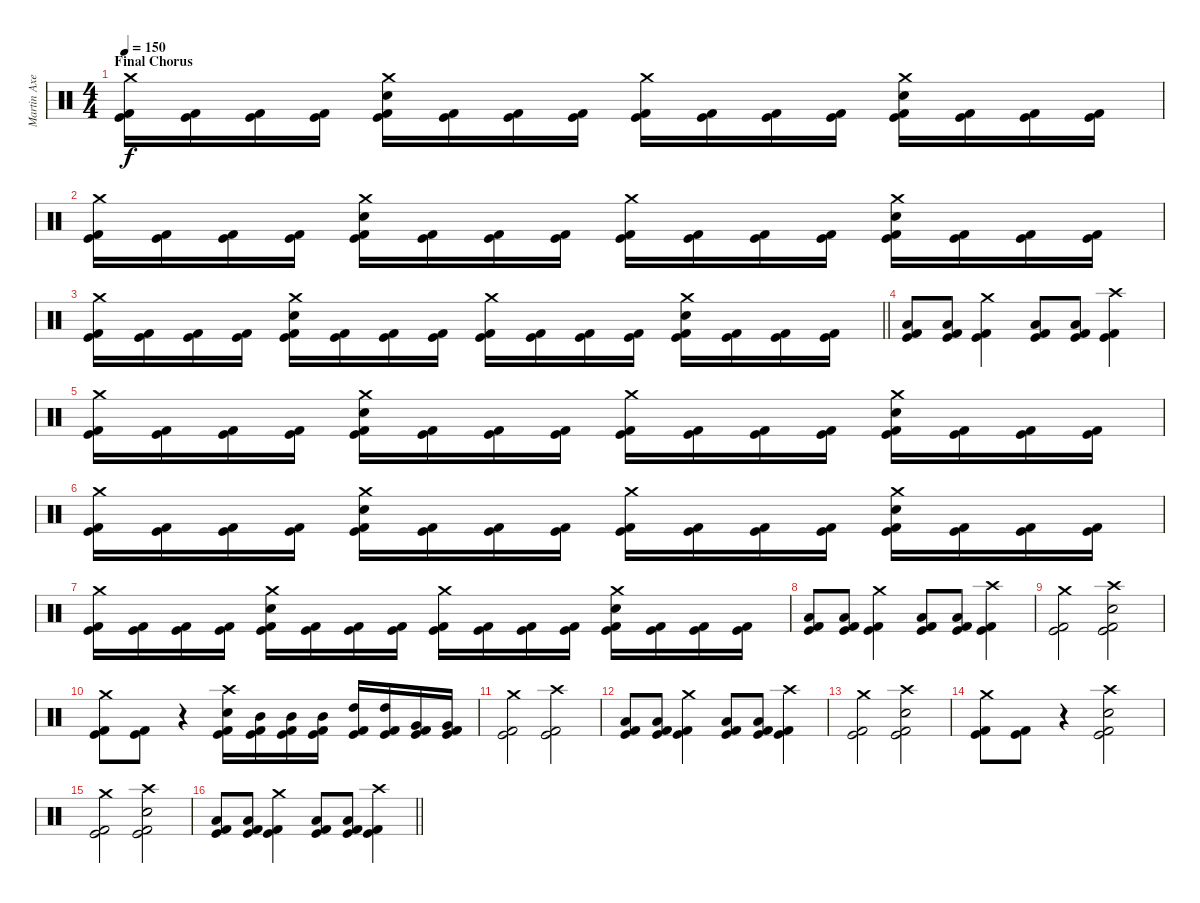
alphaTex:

\track ("Martin Axenrot" "Martin Axe") {instrument percussion}
\staff {score}
\articulation defaults
\ts (4 4)
\section ("" "Final Chorus")
\tempo 150
\clef neutral
\ks c
("Crash medium (hit)" "Kick (hit) 2" "Kick (hit)").16{dy f} ("Kick (hit) 2" "Kick (hit)").16 ("Kick (hit) 2" "Kick (hit)").16 ("Kick (hit) 2" "Kick (hit)").16 ("Crash medium (hit)" "Electric Snare (hit)" "Kick (hit) 2" "Kick (hit)").16 ("Kick (hit) 2" "Kick (hit)").16 ("Kick (hit) 2" "Kick (hit)").16 ("Kick (hit) 2" "Kick (hit)").16 ("Crash medium (hit)" "Kick (hit) 2" "Kick (hit)").16 ("Kick (hit) 2" "Kick (hit)").16 ("Kick (hit) 2" "Kick (hit)").16 ("Kick (hit) 2" "Kick (hit)").16 ("Crash medium (hit)" "Electric Snare (hit)" "Kick (hit) 2" "Kick (hit)").16 ("Kick (hit) 2" "Kick (hit)").16 ("Kick (hit) 2" "Kick (hit)").16 ("Kick (hit) 2" "Kick (hit)").16 |
("Crash medium (hit)" "Kick (hit) 2" "Kick (hit)").16 ("Kick (hit) 2" "Kick (hit)").16 ("Kick (hit) 2" "Kick (hit)").16 ("Kick (hit) 2" "Kick (hit)").16 ("Crash medium (hit)" "Electric Snare (hit)" "Kick (hit) 2" "Kick (hit)").16 ("Kick (hit) 2" "Kick (hit)").16 ("Kick (hit) 2" "Kick (hit)").16 ("Kick (hit) 2" "Kick (hit)").16 ("Crash medium (hit)" "Kick (hit) 2" "Kick (hit)").16 ("Kick (hit) 2" "Kick (hit)").16 ("Kick (hit) 2" "Kick (hit)").16 ("Kick (hit) 2" "Kick (hit)").16 ("Crash medium (hit)" "Electric Snare (hit)" "Kick (hit) 2" "Kick (hit)").16 ("Kick (hit) 2" "Kick (hit)").16 ("Kick (hit) 2" "Kick (hit)").16 ("Kick (hit) 2" "Kick (hit)").16 |
\barLineRight lightlight
("Crash medium (hit)" "Kick (hit) 2" "Kick (hit)").16 ("Kick (hit) 2" "Kick (hit)").16 ("Kick (hit) 2" "Kick (hit)").16 ("Kick (hit) 2" "Kick (hit)").16 ("Crash medium (hit)" "Electric Snare (hit)" "Kick (hit) 2" "Kick (hit)").16 ("Kick (hit) 2" "Kick (hit)").16 ("Kick (hit) 2" "Kick (hit)").16 ("Kick (hit) 2" "Kick (hit)").16 ("Crash medium (hit)" "Kick (hit) 2" "Kick (hit)").16 ("Kick (hit) 2" "Kick (hit)").16 ("Kick (hit) 2" "Kick (hit)").16 ("Kick (hit) 2" "Kick (hit)").16 ("Crash medium (hit)" "Electric Snare (hit)" "Kick (hit) 2" "Kick (hit)").16 ("Kick (hit) 2" "Kick (hit)").16 ("Kick (hit) 2" "Kick (hit)").16 ("Kick (hit) 2" "Kick (hit)").16 |
("Low Floor Tom (hit)" "Kick (hit) 2" "Kick (hit)").8 ("Low Floor Tom (hit)" "Kick (hit) 2" "Kick (hit)").8 ("Crash medium (hit)" "Kick (hit) 2" "Kick (hit)").4 ("Low Floor Tom (hit)" "Kick (hit) 2" "Kick (hit)").8 ("Low Floor Tom (hit)" "Kick (hit) 2" "Kick (hit)").8 ("Crash high (hit)" "Kick (hit) 2" "Kick (hit)").4 |
("Crash medium (hit)" "Kick (hit) 2" "Kick (hit)").16 ("Kick (hit) 2" "Kick (hit)").16 ("Kick (hit) 2" "Kick (hit)").16 ("Kick (hit) 2" "Kick (hit)").16 ("Crash medium (hit)" "Electric Snare (hit)" "Kick (hit) 2" "Kick (hit)").16 ("Kick (hit) 2" "Kick (hit)").16 ("Kick (hit) 2" "Kick (hit)").16 ("Kick (hit) 2" "Kick (hit)").16 ("Crash medium (hit)" "Kick (hit) 2" "Kick (hit)").16 ("Kick (hit) 2" "Kick (hit)").16 ("Kick (hit) 2" "Kick (hit)").16 ("Kick (hit) 2" "Kick (hit)").16 ("Crash medium (hit)" "Electric Snare (hit)" "Kick (hit) 2" "Kick (hit)").16 ("Kick (hit) 2" "Kick (hit)").16 ("Kick (hit) 2" "Kick (hit)").16 ("Kick (hit) 2" "Kick (hit)").16 |
("Crash medium (hit)" "Kick (hit) 2" "Kick (hit)").16 ("Kick (hit) 2" "Kick (hit)").16 ("Kick (hit) 2" "Kick (hit)").16 ("Kick (hit) 2" "Kick (hit)").16 ("Crash medium (hit)" "Electric Snare (hit)" "Kick (hit) 2" "Kick (hit)").16 ("Kick (hit) 2" "Kick (hit)").16 ("Kick (hit) 2" "Kick (hit)").16 ("Kick (hit) 2" "Kick (hit)").16 ("Crash medium (hit)" "Kick (hit) 2" "Kick (hit)").16 ("Kick (hit) 2" "Kick (hit)").16 ("Kick (hit) 2" "Kick (hit)").16 ("Kick (hit) 2" "Kick (hit)").16 ("Crash medium (hit)" "Electric Snare (hit)" "Kick (hit) 2" "Kick (hit)").16 ("Kick (hit) 2" "Kick (hit)").16 ("Kick (hit) 2" "Kick (hit)").16 ("Kick (hit) 2" "Kick (hit)").16 |
("Crash medium (hit)" "Kick (hit) 2" "Kick (hit)").16 ("Kick (hit) 2" "Kick (hit)").16 ("Kick (hit) 2" "Kick (hit)").16 ("Kick (hit) 2" "Kick (hit)").16 ("Crash medium (hit)" "Electric Snare (hit)" "Kick (hit) 2" "Kick (hit)").16 ("Kick (hit) 2" "Kick (hit)").16 ("Kick (hit) 2" "Kick (hit)").16 ("Kick (hit) 2" "Kick (hit)").16 ("Crash medium (hit)" "Kick (hit) 2" "Kick (hit)").16 ("Kick (hit) 2" "Kick (hit)").16 ("Kick (hit) 2" "Kick (hit)").16 ("Kick (hit) 2" "Kick (hit)").16 ("Crash medium (hit)" "Electric Snare (hit)" "Kick (hit) 2" "Kick (hit)").16 ("Kick (hit) 2" "Kick (hit)").16 ("Kick (hit) 2" "Kick (hit)").16 ("Kick (hit) 2" "Kick (hit)").16 |
("Low Floor Tom (hit)" "Kick (hit) 2" "Kick (hit)").8 ("Low Floor Tom (hit)" "Kick (hit) 2" "Kick (hit)").8 ("Crash medium (hit)" "Kick (hit) 2" "Kick (hit)").4 ("Low Floor Tom (hit)" "Kick (hit) 2" "Kick (hit)").8 ("Low Floor Tom (hit)" "Kick (hit) 2" "Kick (hit)").8 ("Crash high (hit)" "Kick (hit) 2" "Kick (hit)").4 |
("Crash medium (hit)" "Kick (hit) 2" "Kick (hit)").2 ("Crash high (hit)" "Electric Snare (hit)" "Kick (hit) 2" "Kick (hit)").2 |
("Crash medium (hit)" "Kick (hit) 2" "Kick (hit)").8 ("Kick (hit) 2" "Kick (hit)").8 r.4 ("Crash high (hit)" "Electric Snare (hit)" "Kick (hit) 2" "Kick (hit)").16 ("Mid Tom (hit)" "Kick (hit) 2" "Kick (hit)").16 ("Mid Tom (hit)" "Kick (hit) 2" "Kick (hit)").16 ("Mid Tom (hit)" "Kick (hit) 2" "Kick (hit)").16 ("High Tom (hit)" "Kick (hit) 2" "Kick (hit)").16 ("High Tom (hit)" "Kick (hit) 2" "Kick (hit)").16 ("Very Low Tom (hit)" "Kick (hit) 2" "Kick (hit)").16 ("Very Low Tom (hit)" "Kick (hit) 2" "Kick (hit)").16 |
("Crash medium (hit)" "Kick (hit) 2" "Kick (hit)").2 ("Crash high (hit)" "Kick (hit) 2" "Kick (hit)").2 |
("Low Floor Tom (hit)" "Kick (hit) 2" "Kick (hit)").8 ("Low Floor Tom (hit)" "Kick (hit) 2" "Kick (hit)").8 ("Crash medium (hit)" "Kick (hit) 2" "Kick (hit)").4 ("Low Floor Tom (hit)" "Kick (hit) 2" "Kick (hit)").8 ("Low Floor Tom (hit)" "Kick (hit) 2" "Kick (hit)").8 ("Crash high (hit)" "Kick (hit) 2" "Kick (hit)").4 |
("Crash medium (hit)" "Kick (hit) 2" "Kick (hit)").2 ("Crash high (hit)" "Electric Snare (hit)" "Kick (hit) 2" "Kick (hit)").2 |
("Crash medium (hit)" "Kick (hit) 2" "Kick (hit)").8 ("Kick (hit) 2" "Kick (hit)").8 r.4 ("Crash high (hit)" "Electric Snare (hit)" "Kick (hit) 2" "Kick (hit)").2 |
("Crash medium (hit)" "Kick (hit) 2" "Kick (hit)").2 ("Crash high (hit)" "Electric Snare (hit)" "Kick (hit) 2" "Kick (hit)").2 |
\barLineRight lightlight
("Low Floor Tom (hit)" "Kick (hit) 2" "Kick (hit)").8 ("Low Floor Tom (hit)" "Kick (hit) 2" "Kick (hit)").8 ("Crash medium (hit)" "Kick (hit) 2" "Kick (hit)").4 ("Low Floor Tom (hit)" "Kick (hit) 2" "Kick (hit)").8 ("Low Floor Tom (hit)" "Kick (hit) 2" "Kick (hit)").8 ("Crash high (hit)" "Kick (hit) 2" "Kick (hit)").4
